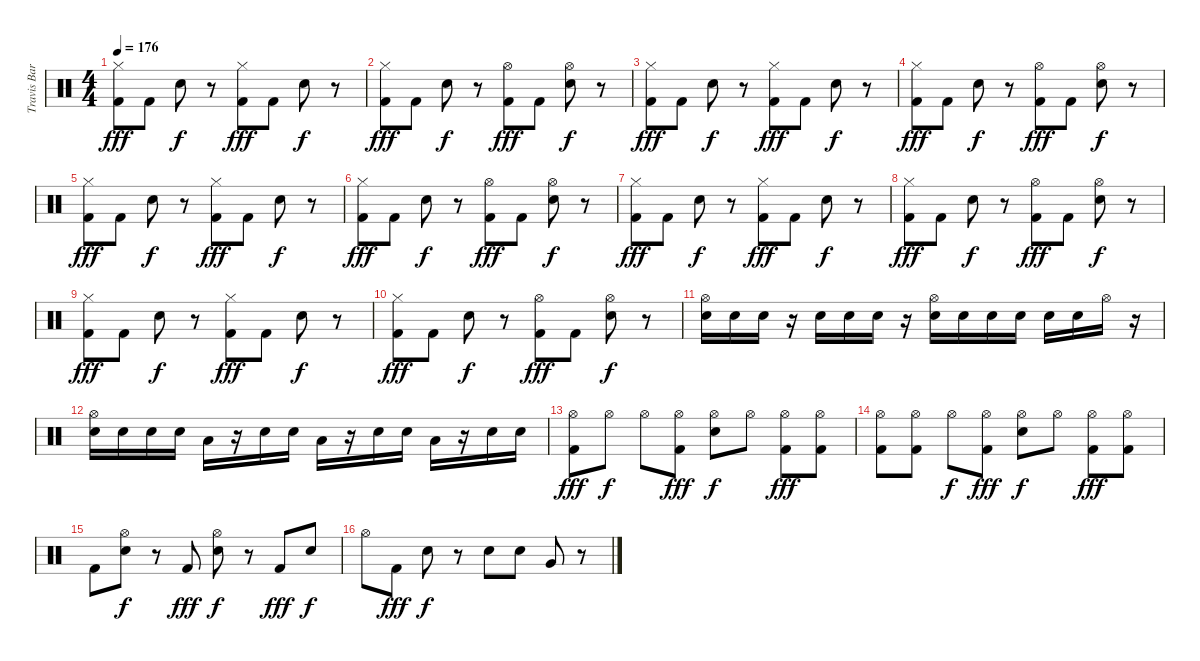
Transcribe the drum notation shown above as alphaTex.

\track ("Travis Barker - Drums" "Travis Bar") {instrument percussion}
\staff {score}
\articulation defaults
\ts (4 4)
\tempo 176
\clef neutral
\ks c
("Kick (hit) 2" "Hi-Hat (closed)").8{dy fff} "Kick (hit) 2".8 "Snare (hit) 2".8{dy f} r.8 ("Kick (hit) 2" "Hi-Hat (closed)").8{dy fff} "Kick (hit) 2".8 "Snare (hit) 2".8{dy f} r.8 |
("Kick (hit) 2" "Hi-Hat (closed)").8{dy fff} "Kick (hit) 2".8 "Snare (hit) 2".8{dy f} r.8 ("Kick (hit) 2" "Hi-Hat (open)").8{dy fff} "Kick (hit) 2".8 ("Snare (hit) 2" "Hi-Hat (open)").8{dy f} r.8 |
("Kick (hit) 2" "Hi-Hat (closed)").8{dy fff} "Kick (hit) 2".8 "Snare (hit) 2".8{dy f} r.8 ("Kick (hit) 2" "Hi-Hat (closed)").8{dy fff} "Kick (hit) 2".8 "Snare (hit) 2".8{dy f} r.8 |
("Kick (hit) 2" "Hi-Hat (closed)").8{dy fff} "Kick (hit) 2".8 "Snare (hit) 2".8{dy f} r.8 ("Kick (hit) 2" "Hi-Hat (open)").8{dy fff} "Kick (hit) 2".8 ("Snare (hit) 2" "Hi-Hat (open)").8{dy f} r.8 |
("Kick (hit) 2" "Hi-Hat (closed)").8{dy fff} "Kick (hit) 2".8 "Snare (hit) 2".8{dy f} r.8 ("Kick (hit) 2" "Hi-Hat (closed)").8{dy fff} "Kick (hit) 2".8 "Snare (hit) 2".8{dy f} r.8 |
("Kick (hit) 2" "Hi-Hat (closed)").8{dy fff} "Kick (hit) 2".8 "Snare (hit) 2".8{dy f} r.8 ("Kick (hit) 2" "Hi-Hat (open)").8{dy fff} "Kick (hit) 2".8 ("Snare (hit) 2" "Hi-Hat (open)").8{dy f} r.8 |
("Kick (hit) 2" "Hi-Hat (closed)").8{dy fff} "Kick (hit) 2".8 "Snare (hit) 2".8{dy f} r.8 ("Kick (hit) 2" "Hi-Hat (closed)").8{dy fff} "Kick (hit) 2".8 "Snare (hit) 2".8{dy f} r.8 |
("Kick (hit) 2" "Hi-Hat (closed)").8{dy fff} "Kick (hit) 2".8 "Snare (hit) 2".8{dy f} r.8 ("Kick (hit) 2" "Hi-Hat (open)").8{dy fff} "Kick (hit) 2".8 ("Snare (hit) 2" "Hi-Hat (open)").8{dy f} r.8 |
("Kick (hit) 2" "Hi-Hat (closed)").8{dy fff} "Kick (hit) 2".8 "Snare (hit) 2".8{dy f} r.8 ("Kick (hit) 2" "Hi-Hat (closed)").8{dy fff} "Kick (hit) 2".8 "Snare (hit) 2".8{dy f} r.8 |
("Kick (hit) 2" "Hi-Hat (closed)").8{dy fff} "Kick (hit) 2".8 "Snare (hit) 2".8{dy f} r.8 ("Kick (hit) 2" "Hi-Hat (open)").8{dy fff} "Kick (hit) 2".8 ("Snare (hit) 2" "Hi-Hat (open)").8{dy f} r.8 |
("Snare (hit) 2" "Hi-Hat (open)").16 "Snare (hit) 2".16 "Snare (hit) 2".16 r.16 "Snare (hit) 2".16 "Snare (hit) 2".16 "Snare (hit) 2".16 r.16 ("Snare (hit) 2" "Hi-Hat (open)").16 "Snare (hit) 2".16 "Snare (hit) 2".16 "Snare (hit) 2".16 "Snare (hit) 2".16 "Snare (hit) 2".16 "Hi-Hat (open)".16 r.16 |
("Snare (hit) 2" "Hi-Hat (open)").16 "Snare (hit) 2".16 "Snare (hit) 2".16 "Snare (hit) 2".16 "Low Tom (hit)".16 r.16 "Snare (hit) 2".16 "Snare (hit) 2".16 "Low Tom (hit)".16 r.16 "Snare (hit) 2".16 "Snare (hit) 2".16 "Low Tom (hit)".16 r.16 "Snare (hit) 2".16 "Snare (hit) 2".16 |
("Kick (hit) 2" "Hi-Hat (open)").8{dy fff} "Hi-Hat (open)".8{dy f} "Hi-Hat (open)".8 ("Kick (hit) 2" "Hi-Hat (open)").8{dy fff} ("Snare (hit) 2" "Hi-Hat (open)").8{dy f} "Hi-Hat (open)".8 ("Kick (hit) 2" "Hi-Hat (open)").8{dy fff} ("Kick (hit) 2" "Hi-Hat (open)").8 |
("Kick (hit) 2" "Hi-Hat (open)").8 ("Kick (hit) 2" "Hi-Hat (open)").8 "Hi-Hat (open)".8{dy f} ("Kick (hit) 2" "Hi-Hat (open)").8{dy fff} ("Snare (hit) 2" "Hi-Hat (open)").8{dy f} "Hi-Hat (open)".8 ("Kick (hit) 2" "Hi-Hat (open)").8{dy fff} ("Kick (hit) 2" "Hi-Hat (open)").8 |
"Kick (hit) 2".8 ("Snare (hit) 2" "Hi-Hat (open)").8{dy f} r.8 "Kick (hit) 2".8{dy fff} ("Snare (hit) 2" "Hi-Hat (open)").8{dy f} r.8 "Kick (hit) 2".8{dy fff} "Snare (hit) 2".8{dy f} |
"Hi-Hat (open)".8 "Kick (hit) 2".8{dy fff} "Snare (hit) 2".8{dy f} r.8 "Snare (hit) 2".8 "Snare (hit) 2".8 "Very Low Tom (hit)".8 r.8
